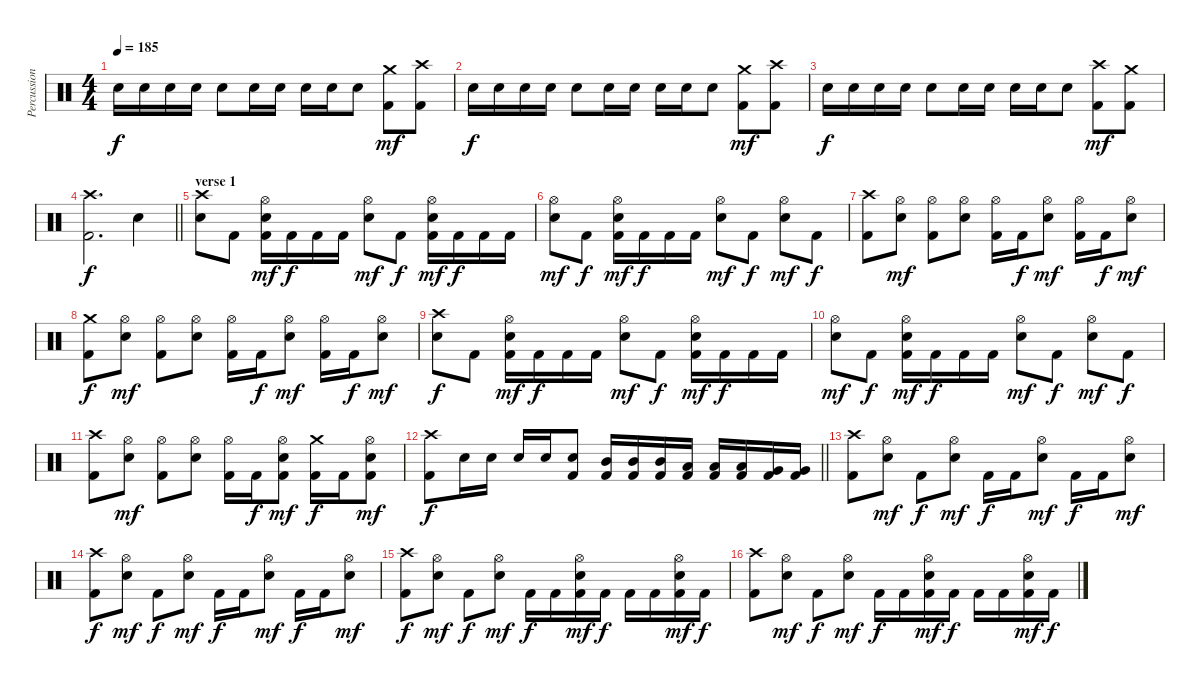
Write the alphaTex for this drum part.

\track ("Percussion" "Percussion") {instrument percussion}
\staff {score}
\articulation defaults
\ts (4 4)
\section ("" "")
\tempo 185
\clef neutral
\ks c "Electric Snare (hit)".16{dy f} "Electric Snare (hit)".16 "Electric Snare (hit)".16 "Electric Snare (hit)".16 "Electric Snare (hit)".8 "Electric Snare (hit)".16 "Electric Snare (hit)".16 "Electric Snare (hit)".16 "Electric Snare (hit)".16 "Electric Snare (hit)".8
("Crash medium (hit)" "Kick (hit) 2").8{dy mf} ("Crash high (hit)" "Kick (hit) 2").8 |
"Electric Snare (hit)".16{dy f} "Electric Snare (hit)".16 "Electric Snare (hit)".16 "Electric Snare (hit)".16 "Electric Snare (hit)".8 "Electric Snare (hit)".16 "Electric Snare (hit)".16 "Electric Snare (hit)".16 "Electric Snare (hit)".16 "Electric Snare (hit)".8 ("Crash medium (hit)" "Kick (hit) 2").8{dy mf} ("Crash high (hit)" "Kick (hit) 2").8 |
"Electric Snare (hit)".16{dy f} "Electric Snare (hit)".16 "Electric Snare (hit)".16 "Electric Snare (hit)".16 "Electric Snare (hit)".8 "Electric Snare (hit)".16 "Electric Snare (hit)".16 "Electric Snare (hit)".16 "Electric Snare (hit)".16 "Electric Snare (hit)".8 ("Crash high (hit)" "Kick (hit) 2").8{dy mf} ("Crash medium (hit)" "Kick (hit) 2").8 |
\barLineRight lightlight
("Crash high (hit)" "Kick (hit) 2").2{d dy f} "Electric Snare (hit)".4 |
\section ("" "verse 1")
("Crash high (hit)" "Electric Snare (hit)").8 "Kick (hit) 2".8 ("Hi-Hat (open)" "Electric Snare (hit)" "Kick (hit) 2").16{dy mf} "Kick (hit) 2".16{dy f} "Kick (hit) 2".16 "Kick (hit) 2".16 ("Hi-Hat (open)" "Electric Snare (hit)").8{dy mf} "Kick (hit) 2".8{dy f} ("Hi-Hat (open)" "Electric Snare (hit)" "Kick (hit) 2").16{dy mf} "Kick (hit) 2".16{dy f} "Kick (hit) 2".16 "Kick (hit) 2".16 |
("Hi-Hat (open)" "Electric Snare (hit)").8{dy mf} "Kick (hit) 2".8{dy f} ("Hi-Hat (open)" "Electric Snare (hit)" "Kick (hit) 2").16{dy mf} "Kick (hit) 2".16{dy f} "Kick (hit) 2".16 "Kick (hit) 2".16 ("Hi-Hat (open)" "Electric Snare (hit)").8{dy mf} "Kick (hit) 2".8{dy f} ("Hi-Hat (open)" "Electric Snare (hit)").8{dy mf} "Kick (hit) 2".8{dy f} |
("Crash high (hit)" "Kick (hit) 2").8 ("Hi-Hat (open)" "Electric Snare (hit)").8{dy mf} ("Hi-Hat (open)" "Kick (hit) 2").8 ("Hi-Hat (open)" "Electric Snare (hit)").8 ("Hi-Hat (open)" "Kick (hit) 2").16 "Kick (hit) 2".16{dy f} ("Hi-Hat (open)" "Electric Snare (hit)").8{dy mf} ("Hi-Hat (open)" "Kick (hit) 2").16 "Kick (hit) 2".16{dy f} ("Hi-Hat (open)" "Electric Snare (hit)").8{dy mf} |
("Crash medium (hit)" "Kick (hit) 2").8{dy f} ("Hi-Hat (open)" "Electric Snare (hit)").8{dy mf} ("Hi-Hat (open)" "Kick (hit) 2").8 ("Hi-Hat (open)" "Electric Snare (hit)").8 ("Hi-Hat (open)" "Kick (hit) 2").16 "Kick (hit) 2".16{dy f} ("Hi-Hat (open)" "Electric Snare (hit)").8{dy mf} ("Hi-Hat (open)" "Kick (hit) 2").16 "Kick (hit) 2".16{dy f} ("Hi-Hat (open)" "Electric Snare (hit)").8{dy mf} |
("Crash high (hit)" "Electric Snare (hit)").8{dy f} "Kick (hit) 2".8 ("Hi-Hat (open)" "Electric Snare (hit)" "Kick (hit) 2").16{dy mf} "Kick (hit) 2".16{dy f} "Kick (hit) 2".16 "Kick (hit) 2".16 ("Hi-Hat (open)" "Electric Snare (hit)").8{dy mf} "Kick (hit) 2".8{dy f} ("Hi-Hat (open)" "Electric Snare (hit)" "Kick (hit) 2").16{dy mf} "Kick (hit) 2".16{dy f} "Kick (hit) 2".16 "Kick (hit) 2".16 |
("Hi-Hat (open)" "Electric Snare (hit)").8{dy mf} "Kick (hit) 2".8{dy f} ("Hi-Hat (open)" "Electric Snare (hit)" "Kick (hit) 2").16{dy mf} "Kick (hit) 2".16{dy f} "Kick (hit) 2".16 "Kick (hit) 2".16 ("Hi-Hat (open)" "Electric Snare (hit)").8{dy mf} "Kick (hit) 2".8{dy f} ("Hi-Hat (open)" "Electric Snare (hit)").8{dy mf} "Kick (hit) 2".8{dy f} |
("Crash high (hit)" "Kick (hit) 2").8 ("Hi-Hat (open)" "Electric Snare (hit)").8{dy mf} ("Hi-Hat (open)" "Kick (hit) 2").8 ("Hi-Hat (open)" "Electric Snare (hit)").8 ("Hi-Hat (open)" "Kick (hit) 2").16 "Kick (hit) 2".16{dy f} ("Hi-Hat (open)" "Electric Snare (hit)" "Kick (hit) 2").8{dy mf} ("Crash medium (hit)" "Kick (hit) 2").16{dy f} "Kick (hit) 2".16 ("Hi-Hat (open)" "Electric Snare (hit)" "Kick (hit) 2").8{dy mf} |
\barLineRight lightlight
("Crash high (hit)" "Kick (hit) 2").8{dy f} "Electric Snare (hit)".16 "Electric Snare (hit)".16 "Electric Snare (hit)".16 "Electric Snare (hit)".16 ("Electric Snare (hit)" "Kick (hit) 2").8 ("Mid Tom (hit)" "Kick (hit) 2").16 ("Mid Tom (hit)" "Kick (hit) 2").16 ("Mid Tom (hit)" "Kick (hit) 2").16 ("Low Tom (hit)" "Kick (hit) 2").16 ("Low Tom (hit)" "Kick (hit) 2").16 ("Low Tom (hit)" "Kick (hit) 2").16 ("Very Low Tom (hit)" "Kick (hit) 2").16 ("Very Low Tom (hit)" "Kick (hit) 2").16 |
\section ("" "")
("Crash high (hit)" "Kick (hit) 2").8 ("Hi-Hat (open)" "Electric Snare (hit)").8{dy mf} "Kick (hit) 2".8{dy f} ("Hi-Hat (open)" "Electric Snare (hit)").8{dy mf} "Kick (hit) 2".16{dy f} "Kick (hit) 2".16 ("Hi-Hat (open)" "Electric Snare (hit)").8{dy mf} "Kick (hit) 2".16{dy f} "Kick (hit) 2".16 ("Hi-Hat (open)" "Electric Snare (hit)").8{dy mf} |
("Crash high (hit)" "Kick (hit) 2").8{dy f} ("Hi-Hat (open)" "Electric Snare (hit)").8{dy mf} "Kick (hit) 2".8{dy f} ("Hi-Hat (open)" "Electric Snare (hit)").8{dy mf} "Kick (hit) 2".16{dy f} "Kick (hit) 2".16 ("Hi-Hat (open)" "Electric Snare (hit)").8{dy mf} "Kick (hit) 2".16{dy f} "Kick (hit) 2".16 ("Hi-Hat (open)" "Electric Snare (hit)").8{dy mf} |
("Crash high (hit)" "Kick (hit) 2").8{dy f} ("Hi-Hat (open)" "Electric Snare (hit)").8{dy mf} "Kick (hit) 2".8{dy f} ("Hi-Hat (open)" "Electric Snare (hit)").8{dy mf} "Kick (hit) 2".16{dy f} "Kick (hit) 2".16 ("Hi-Hat (open)" "Electric Snare (hit)" "Kick (hit) 2").16{dy mf} "Kick (hit) 2".16{dy f} "Kick (hit) 2".16 "Kick (hit) 2".16 ("Hi-Hat (open)" "Electric Snare (hit)" "Kick (hit) 2").16{dy mf} "Kick (hit) 2".16{dy f} |
("Crash high (hit)" "Kick (hit) 2").8 ("Hi-Hat (open)" "Electric Snare (hit)").8{dy mf} "Kick (hit) 2".8{dy f} ("Hi-Hat (open)" "Electric Snare (hit)").8{dy mf} "Kick (hit) 2".16{dy f} "Kick (hit) 2".16 ("Hi-Hat (open)" "Electric Snare (hit)" "Kick (hit) 2").16{dy mf} "Kick (hit) 2".16{dy f} "Kick (hit) 2".16 "Kick (hit) 2".16 ("Hi-Hat (open)" "Electric Snare (hit)" "Kick (hit) 2").16{dy mf} "Kick (hit) 2".16{dy f}
